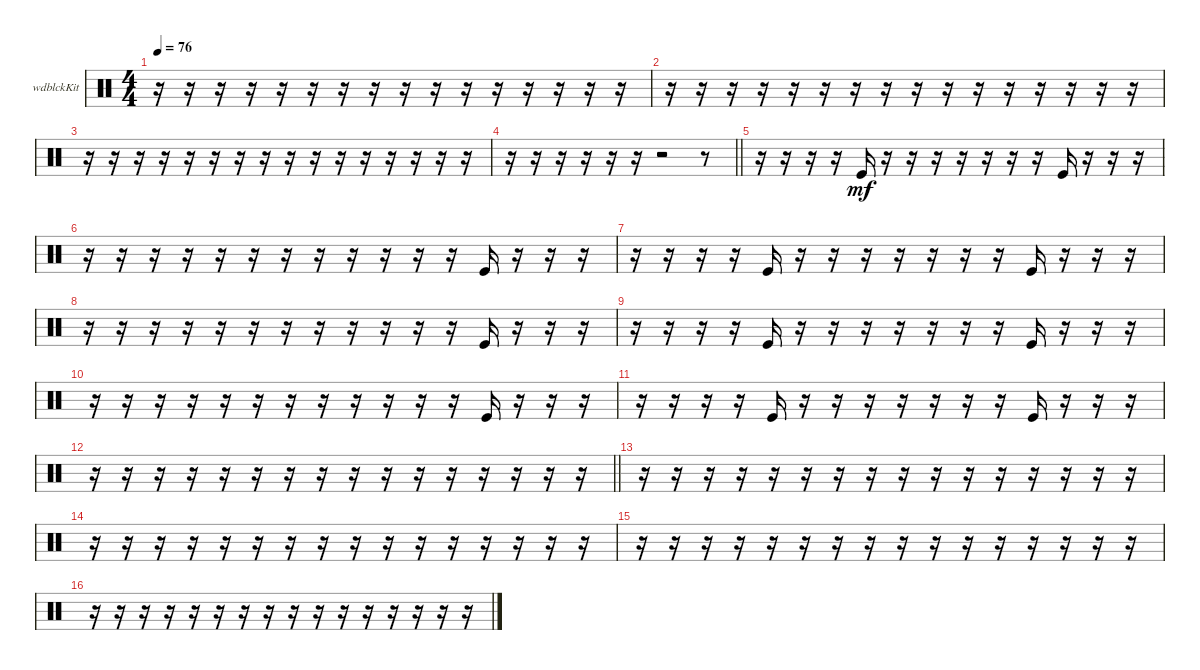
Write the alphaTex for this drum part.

\bracketExtendMode groupsimilarinstruments
\firstSystemTrackNameOrientation horizontal
\otherSystemsTrackNameOrientation horizontal
\track ("Woodblock" "wdblckKit") {instrument percussion}
\staff {score}
\articulation defaults
\ts (4 4)
\tempo 76
\clef neutral
\ks c
r.16{dy mf} r.16 r.16 r.16 r.16 r.16 r.16 r.16 r.16 r.16 r.16 r.16 r.16 r.16 r.16 r.16 |
r.16 r.16 r.16 r.16 r.16 r.16 r.16 r.16 r.16 r.16 r.16 r.16 r.16 r.16 r.16 r.16 |
r.16 r.16 r.16 r.16 r.16 r.16 r.16 r.16 r.16 r.16 r.16 r.16 r.16 r.16 r.16 r.16 |
\barLineRight lightlight
r.16 r.16 r.16 r.16 r.16 r.16 r.2 r.8 |
r.16 r.16 r.16 r.16 "Kick (hit)".16 r.16 r.16 r.16 r.16 r.16 r.16 r.16 "Kick (hit)".16 r.16 r.16 r.16 |
r.16 r.16 r.16 r.16 r.16 r.16 r.16 r.16 r.16 r.16 r.16 r.16 "Kick (hit)".16 r.16 r.16 r.16 |
r.16 r.16 r.16 r.16 "Kick (hit)".16 r.16 r.16 r.16 r.16 r.16 r.16 r.16 "Kick (hit)".16 r.16 r.16 r.16 |
r.16 r.16 r.16 r.16 r.16 r.16 r.16 r.16 r.16 r.16 r.16 r.16 "Kick (hit)".16 r.16 r.16 r.16 |
r.16 r.16 r.16 r.16 "Kick (hit)".16 r.16 r.16 r.16 r.16 r.16 r.16 r.16 "Kick (hit)".16 r.16 r.16 r.16 |
r.16 r.16 r.16 r.16 r.16 r.16 r.16 r.16 r.16 r.16 r.16 r.16 "Kick (hit)".16 r.16 r.16 r.16 |
r.16 r.16 r.16 r.16 "Kick (hit)".16 r.16 r.16 r.16 r.16 r.16 r.16 r.16 "Kick (hit)".16 r.16 r.16 r.16 |
\barLineRight lightlight
r.16 r.16 r.16 r.16 r.16 r.16 r.16 r.16 r.16 r.16 r.16 r.16 r.16 r.16 r.16 r.16 |
r.16 r.16 r.16 r.16 r.16 r.16 r.16 r.16 r.16 r.16 r.16 r.16 r.16 r.16 r.16 r.16 |
r.16 r.16 r.16 r.16 r.16 r.16 r.16 r.16 r.16 r.16 r.16 r.16 r.16 r.16 r.16 r.16 |
r.16 r.16 r.16 r.16 r.16 r.16 r.16 r.16 r.16 r.16 r.16 r.16 r.16 r.16 r.16 r.16 |
r.16 r.16 r.16 r.16 r.16 r.16 r.16 r.16 r.16 r.16 r.16 r.16 r.16 r.16 r.16 r.16
